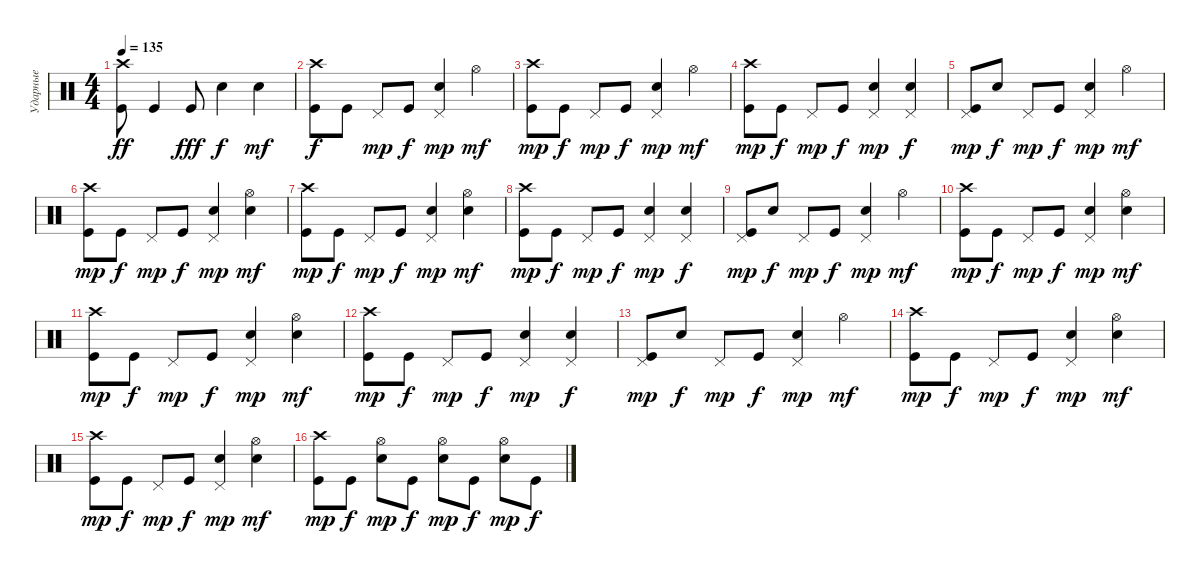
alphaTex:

\track ("Ударные" "Ударные") {instrument percussion}
\staff {score}
\articulation defaults
\ts (4 4)
\tempo 135
\clef neutral
\ks c
("Crash high (hit)" "Kick (hit)").8{dy ff} "Kick (hit)".4 "Kick (hit)".8{dy fff} "Electric Snare (hit)".4{dy f} "Snare (hit) 2".4{dy mf} |
("Crash high (hit)" "Kick (hit)").8{dy f} "Kick (hit)".8 "Pedal Hi-Hat (hit)".8{dy mp} "Kick (hit)".8{dy f} ("Pedal Hi-Hat (hit)" "Snare (hit) 2").4{dy mp} "Hi-Hat (open)".4{dy mf} |
("Crash high (hit)" "Kick (hit)").8{dy mp} "Kick (hit)".8{dy f} "Pedal Hi-Hat (hit)".8{dy mp} "Kick (hit)".8{dy f} ("Pedal Hi-Hat (hit)" "Snare (hit) 2").4{dy mp} "Hi-Hat (open)".4{dy mf} |
("Crash high (hit)" "Kick (hit)").8{dy mp} "Kick (hit)".8{dy f} "Pedal Hi-Hat (hit)".8{dy mp} "Kick (hit)".8{dy f} ("Pedal Hi-Hat (hit)" "Snare (hit) 2").4{dy mp} ("Pedal Hi-Hat (hit)" "Snare (hit) 2").4{dy f} |
("Pedal Hi-Hat (hit)" "Kick (hit)").8{dy mp} "Snare (hit) 2".8{dy f} "Pedal Hi-Hat (hit)".8{dy mp} "Kick (hit)".8{dy f} ("Pedal Hi-Hat (hit)" "Snare (hit) 2").4{dy mp} "Hi-Hat (open)".4{dy mf} |
("Crash high (hit)" "Kick (hit)").8{dy mp} "Kick (hit)".8{dy f} "Pedal Hi-Hat (hit)".8{dy mp} "Kick (hit)".8{dy f} ("Pedal Hi-Hat (hit)" "Snare (hit) 2").4{dy mp} ("Hi-Hat (open)" "Snare (hit) 2").4{dy mf} |
("Crash high (hit)" "Kick (hit)").8{dy mp} "Kick (hit)".8{dy f} "Pedal Hi-Hat (hit)".8{dy mp} "Kick (hit)".8{dy f} ("Pedal Hi-Hat (hit)" "Snare (hit) 2").4{dy mp} ("Hi-Hat (open)" "Snare (hit) 2").4{dy mf} |
("Crash high (hit)" "Kick (hit)").8{dy mp} "Kick (hit)".8{dy f} "Pedal Hi-Hat (hit)".8{dy mp} "Kick (hit)".8{dy f} ("Pedal Hi-Hat (hit)" "Snare (hit) 2").4{dy mp} ("Pedal Hi-Hat (hit)" "Snare (hit) 2").4{dy f} |
("Pedal Hi-Hat (hit)" "Kick (hit)").8{dy mp} "Snare (hit) 2".8{dy f} "Pedal Hi-Hat (hit)".8{dy mp} "Kick (hit)".8{dy f} ("Pedal Hi-Hat (hit)" "Snare (hit) 2").4{dy mp} "Hi-Hat (open)".4{dy mf} |
("Crash high (hit)" "Kick (hit)").8{dy mp} "Kick (hit)".8{dy f} "Pedal Hi-Hat (hit)".8{dy mp} "Kick (hit)".8{dy f} ("Pedal Hi-Hat (hit)" "Snare (hit) 2").4{dy mp} ("Hi-Hat (open)" "Snare (hit) 2").4{dy mf} |
("Crash high (hit)" "Kick (hit)").8{dy mp} "Kick (hit)".8{dy f} "Pedal Hi-Hat (hit)".8{dy mp} "Kick (hit)".8{dy f} ("Pedal Hi-Hat (hit)" "Snare (hit) 2").4{dy mp} ("Hi-Hat (open)" "Snare (hit) 2").4{dy mf} |
("Crash high (hit)" "Kick (hit)").8{dy mp} "Kick (hit)".8{dy f} "Pedal Hi-Hat (hit)".8{dy mp} "Kick (hit)".8{dy f} ("Pedal Hi-Hat (hit)" "Snare (hit) 2").4{dy mp} ("Pedal Hi-Hat (hit)" "Snare (hit) 2").4{dy f} |
("Pedal Hi-Hat (hit)" "Kick (hit)").8{dy mp} "Snare (hit) 2".8{dy f} "Pedal Hi-Hat (hit)".8{dy mp} "Kick (hit)".8{dy f} ("Pedal Hi-Hat (hit)" "Snare (hit) 2").4{dy mp} "Hi-Hat (open)".4{dy mf} |
("Crash high (hit)" "Kick (hit)").8{dy mp} "Kick (hit)".8{dy f} "Pedal Hi-Hat (hit)".8{dy mp} "Kick (hit)".8{dy f} ("Pedal Hi-Hat (hit)" "Snare (hit) 2").4{dy mp} ("Hi-Hat (open)" "Snare (hit) 2").4{dy mf} |
("Crash high (hit)" "Kick (hit)").8{dy mp} "Kick (hit)".8{dy f} "Pedal Hi-Hat (hit)".8{dy mp} "Kick (hit)".8{dy f} ("Pedal Hi-Hat (hit)" "Snare (hit) 2").4{dy mp} ("Hi-Hat (open)" "Snare (hit) 2").4{dy mf} |
("Crash high (hit)" "Kick (hit)").8{dy mp} "Kick (hit)".8{dy f} ("Hi-Hat (open)" "Snare (hit) 2").8{dy mp} "Kick (hit)".8{dy f} ("Hi-Hat (open)" "Snare (hit) 2").8{dy mp} "Kick (hit)".8{dy f} ("Hi-Hat (open)" "Snare (hit) 2").8{dy mp} "Kick (hit)".8{dy f}
